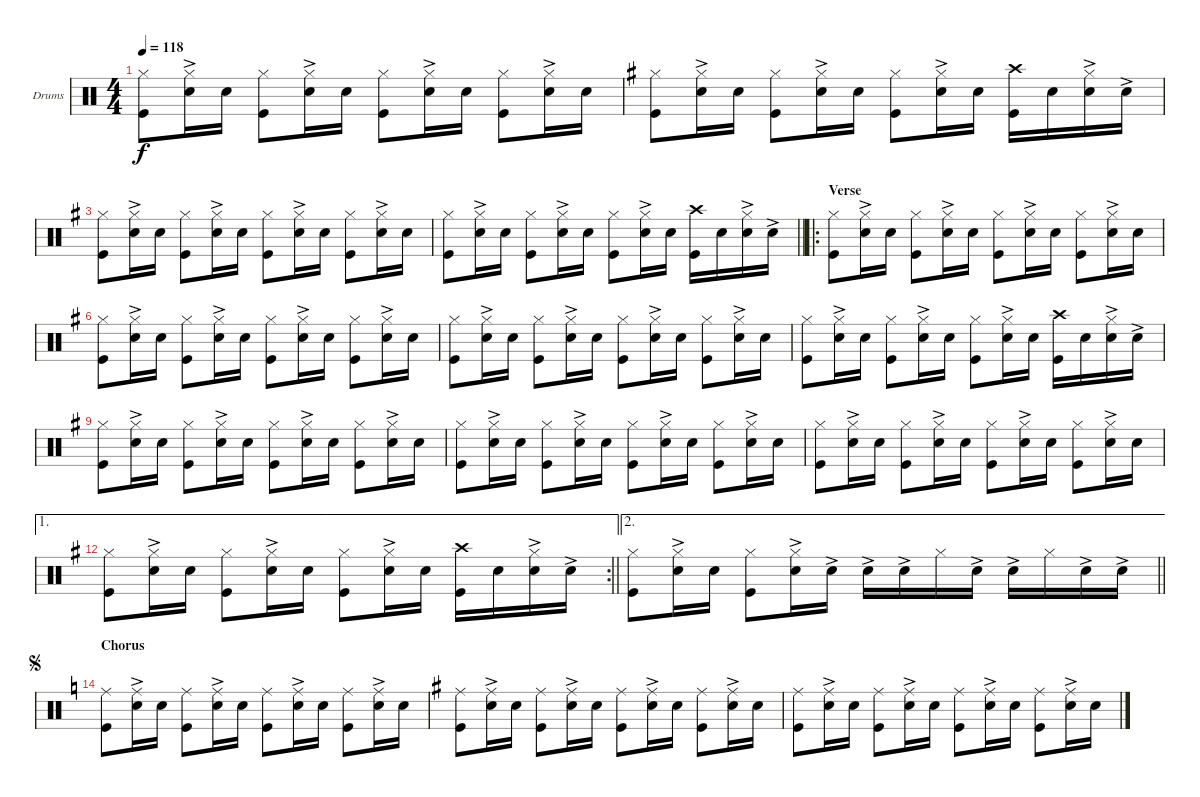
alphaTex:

\bracketExtendMode nobrackets
\firstSystemTrackNameOrientation horizontal
\otherSystemsTrackNameOrientation horizontal
\defaultBarNumberDisplay FirstOfSystem
\track ("Drumkit" "Drums") {instrument percussion}
\staff {score}
\articulation defaults
\ts (4 4)
\tempo 118
\clef neutral
\ks c
("Kick (hit)" "Hi-Hat (closed)").8{dy f} ("Snare (hit) 2"{ac} "Hi-Hat (closed)").16 "Snare (hit) 2".16 ("Kick (hit)" "Hi-Hat (closed)").8 ("Snare (hit) 2"{ac} "Hi-Hat (closed)").16 "Snare (hit) 2".16 ("Kick (hit)" "Hi-Hat (closed)").8 ("Snare (hit) 2"{ac} "Hi-Hat (closed)").16 "Snare (hit) 2".16 ("Kick (hit)" "Hi-Hat (closed)").8 ("Snare (hit) 2"{ac} "Hi-Hat (closed)").16 "Snare (hit) 2".16 |
\ks g
("Kick (hit)" "Hi-Hat (closed)").8 ("Snare (hit) 2"{ac} "Hi-Hat (closed)").16 "Snare (hit) 2".16 ("Kick (hit)" "Hi-Hat (closed)").8 ("Snare (hit) 2"{ac} "Hi-Hat (closed)").16 "Snare (hit) 2".16 ("Kick (hit)" "Hi-Hat (closed)").8 ("Snare (hit) 2"{ac} "Hi-Hat (closed)").16 "Snare (hit) 2".16 ("Kick (hit)" "Crash high (hit)").16 "Snare (hit) 2".16 ("Snare (hit) 2"{ac} "Hi-Hat (closed)").16 "Snare (hit) 2"{ac}.16 |
("Kick (hit)" "Hi-Hat (closed)").8 ("Snare (hit) 2"{ac} "Hi-Hat (closed)").16 "Snare (hit) 2".16 ("Kick (hit)" "Hi-Hat (closed)").8 ("Snare (hit) 2"{ac} "Hi-Hat (closed)").16 "Snare (hit) 2".16 ("Kick (hit)" "Hi-Hat (closed)").8 ("Snare (hit) 2"{ac} "Hi-Hat (closed)").16 "Snare (hit) 2".16 ("Kick (hit)" "Hi-Hat (closed)").8 ("Snare (hit) 2"{ac} "Hi-Hat (closed)").16 "Snare (hit) 2".16 |
\barLineRight lightlight
("Kick (hit)" "Hi-Hat (closed)").8 ("Snare (hit) 2"{ac} "Hi-Hat (closed)").16 "Snare (hit) 2".16 ("Kick (hit)" "Hi-Hat (closed)").8 ("Snare (hit) 2"{ac} "Hi-Hat (closed)").16 "Snare (hit) 2".16 ("Kick (hit)" "Hi-Hat (closed)").8 ("Snare (hit) 2"{ac} "Hi-Hat (closed)").16 "Snare (hit) 2".16 ("Kick (hit)" "Crash high (hit)").16 "Snare (hit) 2".16 ("Snare (hit) 2"{ac} "Hi-Hat (closed)").16 "Snare (hit) 2"{ac}.16 |
\ro
\section ("" "Verse")
\scale
0.377778 ("Kick (hit)" "Hi-Hat (closed)").8 ("Snare (hit) 2"{ac} "Hi-Hat (closed)").16 "Snare (hit) 2".16 ("Kick (hit)" "Hi-Hat (closed)").8 ("Snare (hit) 2"{ac} "Hi-Hat (closed)").16 "Snare (hit) 2".16 ("Kick (hit)" "Hi-Hat (closed)").8 ("Snare (hit) 2"{ac} "Hi-Hat (closed)").16 "Snare (hit) 2".16 ("Kick (hit)" "Hi-Hat (closed)").8 ("Snare (hit) 2"{ac} "Hi-Hat (closed)").16 "Snare (hit) 2".16 |
\scale
0.311111 ("Kick (hit)" "Hi-Hat (closed)").8 ("Snare (hit) 2"{ac} "Hi-Hat (closed)").16 "Snare (hit) 2".16 ("Kick (hit)" "Hi-Hat (closed)").8 ("Snare (hit) 2"{ac} "Hi-Hat (closed)").16 "Snare (hit) 2".16 ("Kick (hit)" "Hi-Hat (closed)").8 ("Snare (hit) 2"{ac} "Hi-Hat (closed)").16 "Snare (hit) 2".16 ("Kick (hit)" "Hi-Hat (closed)").8 ("Snare (hit) 2"{ac} "Hi-Hat (closed)").16 "Snare (hit) 2".16 |
\scale
0.311111 ("Kick (hit)" "Hi-Hat (closed)").8 ("Snare (hit) 2"{ac} "Hi-Hat (closed)").16 "Snare (hit) 2".16 ("Kick (hit)" "Hi-Hat (closed)").8 ("Snare (hit) 2"{ac} "Hi-Hat (closed)").16 "Snare (hit) 2".16 ("Kick (hit)" "Hi-Hat (closed)").8 ("Snare (hit) 2"{ac} "Hi-Hat (closed)").16 "Snare (hit) 2".16 ("Kick (hit)" "Hi-Hat (closed)").8 ("Snare (hit) 2"{ac} "Hi-Hat (closed)").16 "Snare (hit) 2".16 |
\scale
0.333333 ("Kick (hit)" "Hi-Hat (closed)").8 ("Snare (hit) 2"{ac} "Hi-Hat (closed)").16 "Snare (hit) 2".16 ("Kick (hit)" "Hi-Hat (closed)").8 ("Snare (hit) 2"{ac} "Hi-Hat (closed)").16 "Snare (hit) 2".16 ("Kick (hit)" "Hi-Hat (closed)").8 ("Snare (hit) 2"{ac} "Hi-Hat (closed)").16 "Snare (hit) 2".16 ("Kick (hit)" "Crash high (hit)").16 "Snare (hit) 2".16 ("Snare (hit) 2"{ac} "Hi-Hat (closed)").16 "Snare (hit) 2"{ac}.16 |
\scale
0.333333 ("Kick (hit)" "Hi-Hat (closed)").8 ("Snare (hit) 2"{ac} "Hi-Hat (closed)").16 "Snare (hit) 2".16 ("Kick (hit)" "Hi-Hat (closed)").8 ("Snare (hit) 2"{ac} "Hi-Hat (closed)").16 "Snare (hit) 2".16 ("Kick (hit)" "Hi-Hat (closed)").8 ("Snare (hit) 2"{ac} "Hi-Hat (closed)").16 "Snare (hit) 2".16 ("Kick (hit)" "Hi-Hat (closed)").8 ("Snare (hit) 2"{ac} "Hi-Hat (closed)").16 "Snare (hit) 2".16 |
\scale
0.333333 ("Kick (hit)" "Hi-Hat (closed)").8 ("Snare (hit) 2"{ac} "Hi-Hat (closed)").16 "Snare (hit) 2".16 ("Kick (hit)" "Hi-Hat (closed)").8 ("Snare (hit) 2"{ac} "Hi-Hat (closed)").16 "Snare (hit) 2".16 ("Kick (hit)" "Hi-Hat (closed)").8 ("Snare (hit) 2"{ac} "Hi-Hat (closed)").16 "Snare (hit) 2".16 ("Kick (hit)" "Hi-Hat (closed)").8 ("Snare (hit) 2"{ac} "Hi-Hat (closed)").16 "Snare (hit) 2".16 |
\scale
0.321839 ("Kick (hit)" "Hi-Hat (closed)").8 ("Snare (hit) 2"{ac} "Hi-Hat (closed)").16 "Snare (hit) 2".16 ("Kick (hit)" "Hi-Hat (closed)").8 ("Snare (hit) 2"{ac} "Hi-Hat (closed)").16 "Snare (hit) 2".16 ("Kick (hit)" "Hi-Hat (closed)").8 ("Snare (hit) 2"{ac} "Hi-Hat (closed)").16 "Snare (hit) 2".16 ("Kick (hit)" "Hi-Hat (closed)").8 ("Snare (hit) 2"{ac} "Hi-Hat (closed)").16 "Snare (hit) 2".16 |
\ae 1
\rc 2
\scale
0.356322
\barLineRight lightlight
("Kick (hit)" "Hi-Hat (closed)").8 ("Snare (hit) 2"{ac} "Hi-Hat (closed)").16 "Snare (hit) 2".16 ("Kick (hit)" "Hi-Hat (closed)").8 ("Snare (hit) 2"{ac} "Hi-Hat (closed)").16 "Snare (hit) 2".16 ("Kick (hit)" "Hi-Hat (closed)").8 ("Snare (hit) 2"{ac} "Hi-Hat (closed)").16 "Snare (hit) 2".16 ("Kick (hit)" "Crash high (hit)").16 "Snare (hit) 2".16 ("Snare (hit) 2"{ac} "Hi-Hat (closed)").16 "Snare (hit) 2"{ac}.16 |
\ae 2
\scale
0.321839
\barLineRight lightlight
("Kick (hit)" "Hi-Hat (closed)").8 ("Snare (hit) 2"{ac} "Hi-Hat (closed)").16 "Snare (hit) 2".16 ("Kick (hit)" "Hi-Hat (closed)").8 ("Snare (hit) 2"{ac} "Hi-Hat (closed)").16 "Snare (hit) 2"{ac}.16 "Snare (hit) 2"{ac}.16 "Snare (hit) 2"{ac}.16 "Hi-Hat (closed)".16 "Snare (hit) 2"{ac}.16 "Snare (hit) 2"{ac}.16 "Hi-Hat (closed)".16 "Snare (hit) 2"{ac}.16 "Snare (hit) 2"{ac}.16 |
\section ("" "Chorus")
\jump segno
\scale
0.34555
\ks c
("Kick (hit)" "Ride (middle)").8 ("Snare (hit) 2"{ac} "Ride (middle)").16 "Snare (hit) 2".16 ("Kick (hit)" "Ride (middle)").8 ("Snare (hit) 2"{ac} "Ride (middle)").16 "Snare (hit) 2".16 ("Kick (hit)" "Ride (middle)").8 ("Snare (hit) 2"{ac} "Ride (middle)").16 "Snare (hit) 2".16 ("Kick (hit)" "Ride (middle)").8 ("Snare (hit) 2"{ac} "Ride (middle)").16 "Snare (hit) 2".16 |
\scale
0.361257
\ks g
("Kick (hit)" "Ride (middle)").8 ("Snare (hit) 2"{ac} "Ride (middle)").16 "Snare (hit) 2".16 ("Kick (hit)" "Ride (middle)").8 ("Snare (hit) 2"{ac} "Ride (middle)").16 "Snare (hit) 2".16 ("Kick (hit)" "Ride (middle)").8 ("Snare (hit) 2"{ac} "Ride (middle)").16 "Snare (hit) 2".16 ("Kick (hit)" "Ride (middle)").8 ("Snare (hit) 2"{ac} "Ride (middle)").16 "Snare (hit) 2".16 |
\scale
0.293194 ("Kick (hit)" "Ride (middle)").8 ("Snare (hit) 2"{ac} "Ride (middle)").16 "Snare (hit) 2".16 ("Kick (hit)" "Ride (middle)").8 ("Snare (hit) 2"{ac} "Ride (middle)").16 "Snare (hit) 2".16 ("Kick (hit)" "Ride (middle)").8 ("Snare (hit) 2"{ac} "Ride (middle)").16 "Snare (hit) 2".16 ("Kick (hit)" "Ride (middle)").8 ("Snare (hit) 2"{ac} "Ride (middle)").16 "Snare (hit) 2".16
